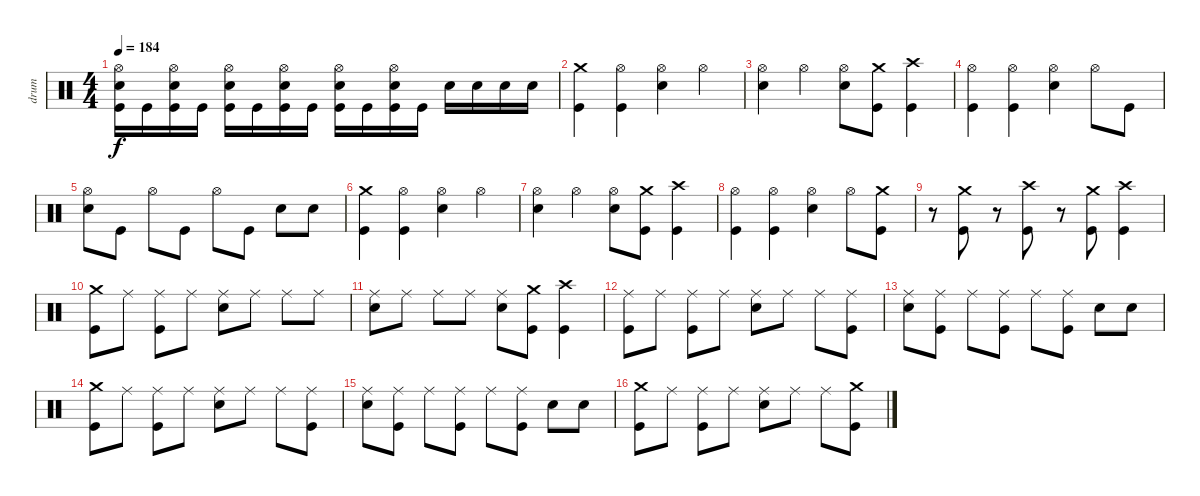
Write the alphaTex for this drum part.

\track ("drum" "drum") {instrument percussion}
\staff {score}
\articulation defaults
\ts (4 4)
\tempo 184
\clef neutral
\ks c
("Hi-Hat (open)" "Electric Snare (hit)" "Kick (hit)").16{dy f} "Kick (hit)".16 ("Hi-Hat (open)" "Electric Snare (hit)" "Kick (hit)").16 "Kick (hit)".16 ("Hi-Hat (open)" "Electric Snare (hit)" "Kick (hit)").16 "Kick (hit)".16 ("Hi-Hat (open)" "Electric Snare (hit)" "Kick (hit)").16 "Kick (hit)".16 ("Hi-Hat (open)" "Electric Snare (hit)" "Kick (hit)").16 "Kick (hit)".16 ("Hi-Hat (open)" "Electric Snare (hit)" "Kick (hit)").16 "Kick (hit)".16 "Electric Snare (hit)".16 "Electric Snare (hit)".16 "Electric Snare (hit)".16 "Electric Snare (hit)".16 |
("Crash medium (hit)" "Kick (hit)").4 ("Hi-Hat (open)" "Kick (hit)").4 ("Hi-Hat (open)" "Electric Snare (hit)").4 "Hi-Hat (open)".4 |
("Hi-Hat (open)" "Electric Snare (hit)").4 "Hi-Hat (open)".4 ("Hi-Hat (open)" "Electric Snare (hit)").8 ("Crash medium (hit)" "Kick (hit)").8 ("Crash high (hit)" "Kick (hit)").4 |
("Hi-Hat (open)" "Kick (hit)").4 ("Hi-Hat (open)" "Kick (hit)").4 ("Hi-Hat (open)" "Electric Snare (hit)").4 "Hi-Hat (open)".8 "Kick (hit)".8 |
("Hi-Hat (open)" "Electric Snare (hit)").8 "Kick (hit)".8 "Hi-Hat (open)".8 "Kick (hit)".8 "Hi-Hat (open)".8 "Kick (hit)".8 "Electric Snare (hit)".8 "Electric Snare (hit)".8 |
("Crash medium (hit)" "Kick (hit)").4 ("Hi-Hat (open)" "Kick (hit)").4 ("Hi-Hat (open)" "Electric Snare (hit)").4 "Hi-Hat (open)".4 |
("Hi-Hat (open)" "Electric Snare (hit)").4 "Hi-Hat (open)".4 ("Hi-Hat (open)" "Electric Snare (hit)").8 ("Crash medium (hit)" "Kick (hit)").8 ("Crash high (hit)" "Kick (hit)").4 |
("Hi-Hat (open)" "Kick (hit)").4 ("Hi-Hat (open)" "Kick (hit)").4 ("Hi-Hat (open)" "Electric Snare (hit)").4 "Hi-Hat (open)".8 ("Crash medium (hit)" "Kick (hit)").8 |
r.8 ("Crash medium (hit)" "Kick (hit)").8 r.8 ("Crash high (hit)" "Kick (hit)").8 r.8 ("Crash medium (hit)" "Kick (hit)").8 ("Crash high (hit)" "Kick (hit)").4 |
("Crash medium (hit)" "Kick (hit)").8 "Ride (middle)".8 ("Ride (middle)" "Kick (hit)").8 "Ride (middle)".8 ("Ride (middle)" "Electric Snare (hit)").8 "Ride (middle)".8 "Ride (middle)".8 "Ride (middle)".8 |
("Ride (middle)" "Electric Snare (hit)").8 "Ride (middle)".8 "Ride (middle)".8 "Ride (middle)".8 ("Ride (middle)" "Electric Snare (hit)").8 ("Crash medium (hit)" "Kick (hit)").8 ("Crash high (hit)" "Kick (hit)").4 |
("Ride (middle)" "Kick (hit)").8 "Ride (middle)".8 ("Ride (middle)" "Kick (hit)").8 "Ride (middle)".8 ("Ride (middle)" "Electric Snare (hit)").8 "Ride (middle)".8 "Ride (middle)".8 ("Ride (middle)" "Kick (hit)").8 |
("Ride (middle)" "Electric Snare (hit)").8 ("Ride (middle)" "Kick (hit)").8 "Ride (middle)".8 ("Ride (middle)" "Kick (hit)").8 "Ride (middle)".8 ("Ride (middle)" "Kick (hit)").8 "Electric Snare (hit)".8 "Electric Snare (hit)".8 |
("Crash medium (hit)" "Kick (hit)").8 "Ride (middle)".8 ("Ride (middle)" "Kick (hit)").8 "Ride (middle)".8 ("Ride (middle)" "Electric Snare (hit)").8 "Ride (middle)".8 "Ride (middle)".8 ("Ride (middle)" "Kick (hit)").8 |
("Ride (middle)" "Electric Snare (hit)").8 ("Ride (middle)" "Kick (hit)").8 "Ride (middle)".8 ("Ride (middle)" "Kick (hit)").8 "Ride (middle)".8 ("Ride (middle)" "Kick (hit)").8 "Electric Snare (hit)".8 "Electric Snare (hit)".8 |
("Crash medium (hit)" "Kick (hit)").8 "Ride (middle)".8 ("Ride (middle)" "Kick (hit)").8 "Ride (middle)".8 ("Ride (middle)" "Electric Snare (hit)").8 "Ride (middle)".8 "Ride (middle)".8 ("Crash medium (hit)" "Kick (hit)").8
